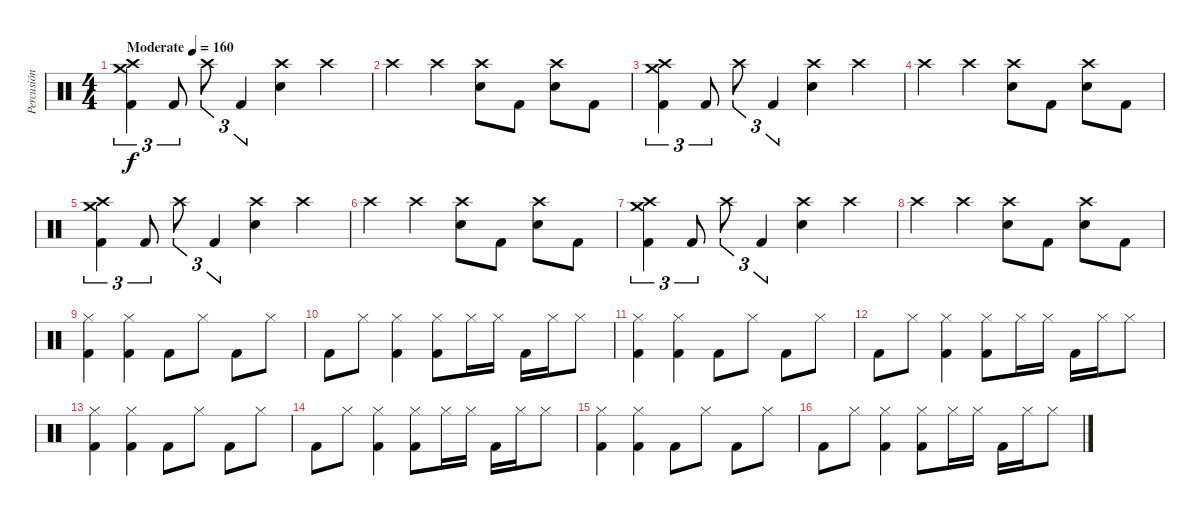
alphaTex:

\track ("Percusión" "Percusión") {instrument percussion}
\staff {score}
\articulation defaults
\ts (4 4)
\tempo (160 "Moderate")
\clef neutral
\ks c
("Crash high (hit)" "Crash medium (hit)" "Kick (hit) 2").4{tu (3 2) dy f} "Kick (hit) 2".8{tu (3 2)} "Crash high (hit)".8{tu (3 2)} "Kick (hit) 2".4{tu (3 2)} ("Electric Snare (hit)" "Crash high (hit)").4 "Crash high (hit)".4 |
"Crash high (hit)".4 "Crash high (hit)".4 ("Electric Snare (hit)" "Crash high (hit)").8 "Kick (hit) 2".8 ("Electric Snare (hit)" "Crash high (hit)").8 "Kick (hit) 2".8 |
("Crash high (hit)" "Crash medium (hit)" "Kick (hit) 2").4{tu (3 2)} "Kick (hit) 2".8{tu (3 2)} "Crash high (hit)".8{tu (3 2)} "Kick (hit) 2".4{tu (3 2)} ("Electric Snare (hit)" "Crash high (hit)").4 "Crash high (hit)".4 |
"Crash high (hit)".4 "Crash high (hit)".4 ("Electric Snare (hit)" "Crash high (hit)").8 "Kick (hit) 2".8 ("Electric Snare (hit)" "Crash high (hit)").8 "Kick (hit) 2".8 |
("Crash high (hit)" "Crash medium (hit)" "Kick (hit) 2").4{tu (3 2)} "Kick (hit) 2".8{tu (3 2)} "Crash high (hit)".8{tu (3 2)} "Kick (hit) 2".4{tu (3 2)} ("Electric Snare (hit)" "Crash high (hit)").4 "Crash high (hit)".4 |
"Crash high (hit)".4 "Crash high (hit)".4 ("Electric Snare (hit)" "Crash high (hit)").8 "Kick (hit) 2".8 ("Electric Snare (hit)" "Crash high (hit)").8 "Kick (hit) 2".8 |
("Crash high (hit)" "Crash medium (hit)" "Kick (hit) 2").4{tu (3 2)} "Kick (hit) 2".8{tu (3 2)} "Crash high (hit)".8{tu (3 2)} "Kick (hit) 2".4{tu (3 2)} ("Electric Snare (hit)" "Crash high (hit)").4 "Crash high (hit)".4 |
"Crash high (hit)".4 "Crash high (hit)".4 ("Electric Snare (hit)" "Crash high (hit)").8 "Kick (hit) 2".8 ("Electric Snare (hit)" "Crash high (hit)").8 "Kick (hit) 2".8 |
("Hi-Hat (closed)" "Kick (hit) 2").4 ("Hi-Hat (closed)" "Kick (hit) 2").4 "Kick (hit) 2".8 "Hi-Hat (closed)".8 "Kick (hit) 2".8 "Hi-Hat (closed)".8 |
"Kick (hit) 2".8 "Hi-Hat (closed)".8 ("Hi-Hat (closed)" "Kick (hit) 2").4 ("Hi-Hat (closed)" "Kick (hit) 2").8 "Hi-Hat (closed)".16 "Hi-Hat (closed)".16 "Kick (hit) 2".16 "Hi-Hat (closed)".16 "Hi-Hat (closed)".8 |
("Hi-Hat (closed)" "Kick (hit) 2").4 ("Hi-Hat (closed)" "Kick (hit) 2").4 "Kick (hit) 2".8 "Hi-Hat (closed)".8 "Kick (hit) 2".8 "Hi-Hat (closed)".8 |
"Kick (hit) 2".8 "Hi-Hat (closed)".8 ("Hi-Hat (closed)" "Kick (hit) 2").4 ("Hi-Hat (closed)" "Kick (hit) 2").8 "Hi-Hat (closed)".16 "Hi-Hat (closed)".16 "Kick (hit) 2".16 "Hi-Hat (closed)".16 "Hi-Hat (closed)".8 |
("Hi-Hat (closed)" "Kick (hit) 2").4 ("Hi-Hat (closed)" "Kick (hit) 2").4 "Kick (hit) 2".8 "Hi-Hat (closed)".8 "Kick (hit) 2".8 "Hi-Hat (closed)".8 |
"Kick (hit) 2".8 "Hi-Hat (closed)".8 ("Hi-Hat (closed)" "Kick (hit) 2").4 ("Hi-Hat (closed)" "Kick (hit) 2").8 "Hi-Hat (closed)".16 "Hi-Hat (closed)".16 "Kick (hit) 2".16 "Hi-Hat (closed)".16 "Hi-Hat (closed)".8 |
("Hi-Hat (closed)" "Kick (hit) 2").4 ("Hi-Hat (closed)" "Kick (hit) 2").4 "Kick (hit) 2".8 "Hi-Hat (closed)".8 "Kick (hit) 2".8 "Hi-Hat (closed)".8 |
"Kick (hit) 2".8 "Hi-Hat (closed)".8 ("Hi-Hat (closed)" "Kick (hit) 2").4 ("Hi-Hat (closed)" "Kick (hit) 2").8 "Hi-Hat (closed)".16 "Hi-Hat (closed)".16 "Kick (hit) 2".16 "Hi-Hat (closed)".16 "Hi-Hat (closed)".8
